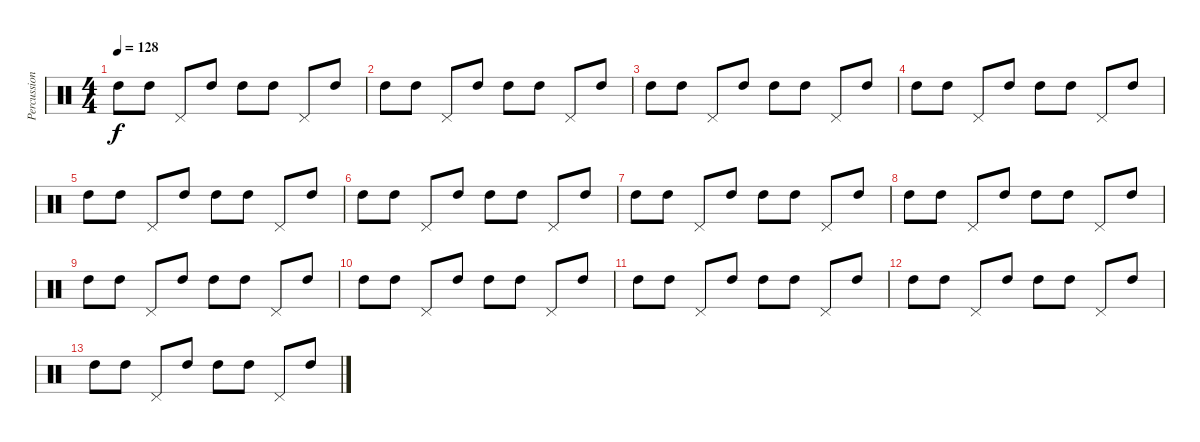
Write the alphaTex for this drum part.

\track ("Percussion" "Percussion") {instrument percussion}
\staff {score}
\articulation defaults
\ts (4 4)
\tempo 128
\clef neutral
\ks c "High Tom (hit)".8{dy f} "High Tom (hit)".8 "Pedal Hi-Hat (hit)".8 "High Tom (hit)".8 "High Tom (hit)".8 "High Tom (hit)".8 "Pedal Hi-Hat (hit)".8 "High Tom (hit)".8
|
"High Tom (hit)".8 "High Tom (hit)".8 "Pedal Hi-Hat (hit)".8 "High Tom (hit)".8 "High Tom (hit)".8 "High Tom (hit)".8 "Pedal Hi-Hat (hit)".8 "High Tom (hit)".8 |
"High Tom (hit)".8 "High Tom (hit)".8 "Pedal Hi-Hat (hit)".8 "High Tom (hit)".8 "High Tom (hit)".8 "High Tom (hit)".8 "Pedal Hi-Hat (hit)".8 "High Tom (hit)".8 |
"High Tom (hit)".8 "High Tom (hit)".8 "Pedal Hi-Hat (hit)".8 "High Tom (hit)".8 "High Tom (hit)".8 "High Tom (hit)".8 "Pedal Hi-Hat (hit)".8 "High Tom (hit)".8 |
"High Tom (hit)".8 "High Tom (hit)".8 "Pedal Hi-Hat (hit)".8 "High Tom (hit)".8 "High Tom (hit)".8 "High Tom (hit)".8 "Pedal Hi-Hat (hit)".8 "High Tom (hit)".8 |
"High Tom (hit)".8 "High Tom (hit)".8 "Pedal Hi-Hat (hit)".8 "High Tom (hit)".8 "High Tom (hit)".8 "High Tom (hit)".8 "Pedal Hi-Hat (hit)".8 "High Tom (hit)".8 |
"High Tom (hit)".8 "High Tom (hit)".8 "Pedal Hi-Hat (hit)".8 "High Tom (hit)".8 "High Tom (hit)".8 "High Tom (hit)".8 "Pedal Hi-Hat (hit)".8 "High Tom (hit)".8 |
"High Tom (hit)".8 "High Tom (hit)".8 "Pedal Hi-Hat (hit)".8 "High Tom (hit)".8 "High Tom (hit)".8 "High Tom (hit)".8 "Pedal Hi-Hat (hit)".8 "High Tom (hit)".8 |
"High Tom (hit)".8 "High Tom (hit)".8 "Pedal Hi-Hat (hit)".8 "High Tom (hit)".8 "High Tom (hit)".8 "High Tom (hit)".8 "Pedal Hi-Hat (hit)".8 "High Tom (hit)".8 |
"High Tom (hit)".8 "High Tom (hit)".8 "Pedal Hi-Hat (hit)".8 "High Tom (hit)".8 "High Tom (hit)".8 "High Tom (hit)".8 "Pedal Hi-Hat (hit)".8 "High Tom (hit)".8 |
"High Tom (hit)".8 "High Tom (hit)".8 "Pedal Hi-Hat (hit)".8 "High Tom (hit)".8 "High Tom (hit)".8 "High Tom (hit)".8 "Pedal Hi-Hat (hit)".8 "High Tom (hit)".8 |
"High Tom (hit)".8 "High Tom (hit)".8 "Pedal Hi-Hat (hit)".8 "High Tom (hit)".8 "High Tom (hit)".8 "High Tom (hit)".8 "Pedal Hi-Hat (hit)".8 "High Tom (hit)".8 |
"High Tom (hit)".8 "High Tom (hit)".8 "Pedal Hi-Hat (hit)".8 "High Tom (hit)".8 "High Tom (hit)".8 "High Tom (hit)".8 "Pedal Hi-Hat (hit)".8 "High Tom (hit)".8
